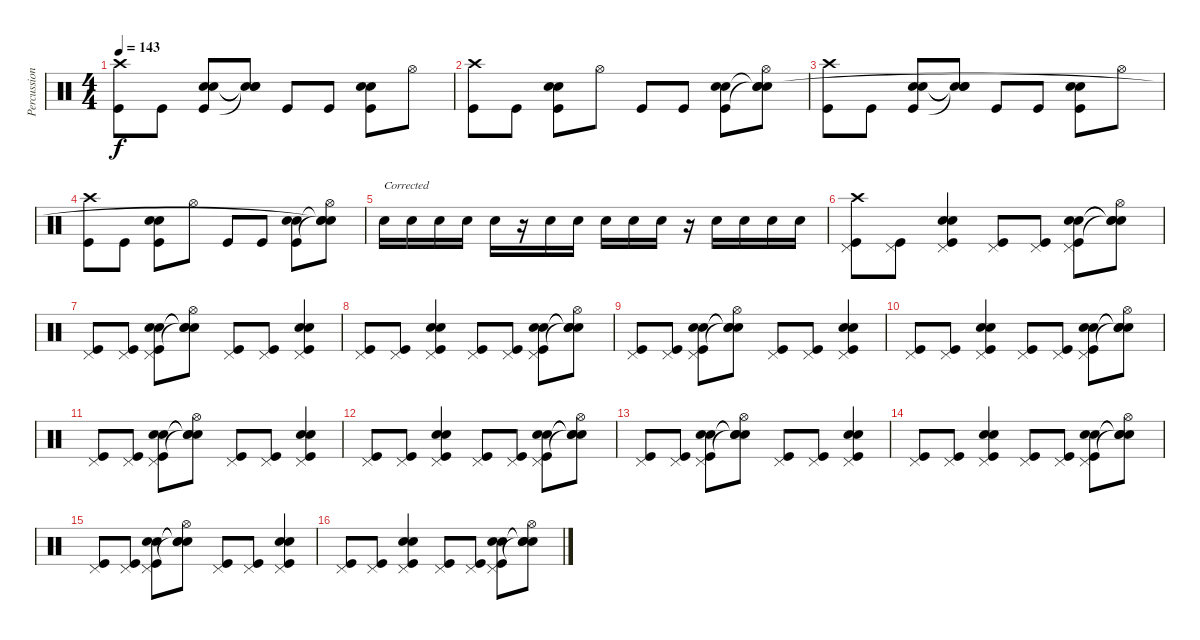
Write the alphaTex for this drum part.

\track ("Percussions" "Percussion") {instrument percussion}
\staff {score}
\articulation defaults
\ts (4 4)
\tempo 143
\clef neutral
\ks c
("Crash high (hit)" "Kick (hit)").8{dy f} "Kick (hit)".8 ("Snare (hit) 2" "Snare (hit) 2" "Kick (hit)").8 ("Snare (hit)"{t} "Snare (hit)"{t} "Snare (hit)"{t}).8 "Kick (hit)".8 "Kick (hit)".8 ("Snare (hit) 2" "Snare (hit) 2" "Kick (hit)").8 "Hi-Hat (open)".8 |
("Crash high (hit)" "Kick (hit)").8 "Kick (hit)".8 ("Snare (hit) 2" "Snare (hit) 2" "Kick (hit)").8 "Hi-Hat (open)".8 "Kick (hit)".8 "Kick (hit)".8 ("Snare (hit) 2" "Snare (hit) 2" "Kick (hit)").8 ("Hi-Hat (open)" "Snare (hit)"{t} "Snare (hit)"{t} "Snare (hit)").8 |
("Crash high (hit)" "Kick (hit)").8 "Kick (hit)".8 ("Snare (hit) 2" "Snare (hit) 2" "Kick (hit)").8 ("Snare (hit)"{t} "Snare (hit)"{t} "Snare (hit)"{t}).8 "Kick (hit)".8 "Kick (hit)".8 ("Snare (hit) 2" "Snare (hit) 2" "Kick (hit)").8 "Hi-Hat (open)".8 |
("Crash high (hit)" "Kick (hit)").8 "Kick (hit)".8 ("Snare (hit) 2" "Snare (hit) 2" "Kick (hit)").8 "Hi-Hat (open)".8 "Kick (hit)".8 "Kick (hit)".8 ("Snare (hit) 2" "Snare (hit) 2" "Kick (hit)").8 ("Hi-Hat (open)" "Snare (hit)"{t} "Snare (hit)"{t} "Snare (hit)"{t}).8 |
"Snare (hit) 2".16{txt "Corrected"} "Snare (hit) 2".16 "Snare (hit) 2".16 "Snare (hit) 2".16 "Snare (hit) 2".16 r.16 "Snare (hit) 2".16 "Snare (hit) 2".16 "Snare (hit) 2".16 "Snare (hit) 2".16 "Snare (hit) 2".16 r.16 "Snare (hit) 2".16 "Snare (hit) 2".16 "Snare (hit) 2".16 "Snare (hit) 2".16 |
("Pedal Hi-Hat (hit)" "Crash high (hit)" "Kick (hit)").8 ("Pedal Hi-Hat (hit)" "Kick (hit)").8 ("Pedal Hi-Hat (hit)" "Snare (hit) 2" "Snare (hit) 2" "Kick (hit)").4 ("Pedal Hi-Hat (hit)" "Kick (hit)").8 ("Pedal Hi-Hat (hit)" "Kick (hit)").8 ("Pedal Hi-Hat (hit)" "Snare (hit) 2" "Snare (hit) 2" "Kick (hit)").8 ("Hi-Hat (open)" "Snare (hit)"{t} "Snare (hit)"{t} "Snare (hit)"{t}).8 |
("Pedal Hi-Hat (hit)" "Kick (hit)").8 ("Pedal Hi-Hat (hit)" "Kick (hit)").8 ("Pedal Hi-Hat (hit)" "Snare (hit) 2" "Snare (hit) 2" "Kick (hit)").8 ("Hi-Hat (open)" "Snare (hit)"{t} "Snare (hit)"{t} "Snare (hit)"{t}).8 ("Pedal Hi-Hat (hit)" "Kick (hit)").8 ("Pedal Hi-Hat (hit)" "Kick (hit)").8 ("Pedal Hi-Hat (hit)" "Snare (hit) 2" "Snare (hit) 2" "Kick (hit)").4 |
("Pedal Hi-Hat (hit)" "Kick (hit)").8 ("Pedal Hi-Hat (hit)" "Kick (hit)").8 ("Pedal Hi-Hat (hit)" "Snare (hit) 2" "Snare (hit) 2" "Kick (hit)").4 ("Pedal Hi-Hat (hit)" "Kick (hit)").8 ("Pedal Hi-Hat (hit)" "Kick (hit)").8 ("Pedal Hi-Hat (hit)" "Snare (hit) 2" "Snare (hit) 2" "Kick (hit)").8 ("Hi-Hat (open)" "Snare (hit)"{t} "Snare (hit)"{t} "Snare (hit)"{t}).8 |
("Pedal Hi-Hat (hit)" "Kick (hit)").8 ("Pedal Hi-Hat (hit)" "Kick (hit)").8 ("Pedal Hi-Hat (hit)" "Snare (hit) 2" "Snare (hit) 2" "Kick (hit)").8 ("Hi-Hat (open)" "Snare (hit)"{t} "Snare (hit)"{t} "Snare (hit)"{t}).8 ("Pedal Hi-Hat (hit)" "Kick (hit)").8 ("Pedal Hi-Hat (hit)" "Kick (hit)").8 ("Pedal Hi-Hat (hit)" "Snare (hit) 2" "Snare (hit) 2" "Kick (hit)").4 |
("Pedal Hi-Hat (hit)" "Kick (hit)").8 ("Pedal Hi-Hat (hit)" "Kick (hit)").8 ("Pedal Hi-Hat (hit)" "Snare (hit) 2" "Snare (hit) 2" "Kick (hit)").4 ("Pedal Hi-Hat (hit)" "Kick (hit)").8 ("Pedal Hi-Hat (hit)" "Kick (hit)").8 ("Pedal Hi-Hat (hit)" "Snare (hit) 2" "Snare (hit) 2" "Kick (hit)").8 ("Hi-Hat (open)" "Snare (hit)"{t} "Snare (hit)"{t} "Snare (hit)"{t}).8 |
("Pedal Hi-Hat (hit)" "Kick (hit)").8 ("Pedal Hi-Hat (hit)" "Kick (hit)").8 ("Pedal Hi-Hat (hit)" "Snare (hit) 2" "Snare (hit) 2" "Kick (hit)").8 ("Hi-Hat (open)" "Snare (hit)"{t} "Snare (hit)"{t} "Snare (hit)"{t}).8 ("Pedal Hi-Hat (hit)" "Kick (hit)").8 ("Pedal Hi-Hat (hit)" "Kick (hit)").8 ("Pedal Hi-Hat (hit)" "Snare (hit) 2" "Snare (hit) 2" "Kick (hit)").4 |
("Pedal Hi-Hat (hit)" "Kick (hit)").8 ("Pedal Hi-Hat (hit)" "Kick (hit)").8 ("Pedal Hi-Hat (hit)" "Snare (hit) 2" "Snare (hit) 2" "Kick (hit)").4 ("Pedal Hi-Hat (hit)" "Kick (hit)").8 ("Pedal Hi-Hat (hit)" "Kick (hit)").8 ("Pedal Hi-Hat (hit)" "Snare (hit) 2" "Snare (hit) 2" "Kick (hit)").8 ("Hi-Hat (open)" "Snare (hit)"{t} "Snare (hit)"{t} "Snare (hit)"{t}).8 |
("Pedal Hi-Hat (hit)" "Kick (hit)").8 ("Pedal Hi-Hat (hit)" "Kick (hit)").8 ("Pedal Hi-Hat (hit)" "Snare (hit) 2" "Snare (hit) 2" "Kick (hit)").8 ("Hi-Hat (open)" "Snare (hit)"{t} "Snare (hit)"{t} "Snare (hit)"{t}).8 ("Pedal Hi-Hat (hit)" "Kick (hit)").8 ("Pedal Hi-Hat (hit)" "Kick (hit)").8 ("Pedal Hi-Hat (hit)" "Snare (hit) 2" "Snare (hit) 2" "Kick (hit)").4 |
("Pedal Hi-Hat (hit)" "Kick (hit)").8 ("Pedal Hi-Hat (hit)" "Kick (hit)").8 ("Pedal Hi-Hat (hit)" "Snare (hit) 2" "Snare (hit) 2" "Kick (hit)").4 ("Pedal Hi-Hat (hit)" "Kick (hit)").8 ("Pedal Hi-Hat (hit)" "Kick (hit)").8 ("Pedal Hi-Hat (hit)" "Snare (hit) 2" "Snare (hit) 2" "Kick (hit)").8 ("Hi-Hat (open)" "Snare (hit)"{t} "Snare (hit)"{t} "Snare (hit)"{t}).8 |
("Pedal Hi-Hat (hit)" "Kick (hit)").8 ("Pedal Hi-Hat (hit)" "Kick (hit)").8 ("Pedal Hi-Hat (hit)" "Snare (hit) 2" "Snare (hit) 2" "Kick (hit)").8 ("Hi-Hat (open)" "Snare (hit)"{t} "Snare (hit)"{t} "Snare (hit)"{t}).8 ("Pedal Hi-Hat (hit)" "Kick (hit)").8 ("Pedal Hi-Hat (hit)" "Kick (hit)").8 ("Pedal Hi-Hat (hit)" "Snare (hit) 2" "Snare (hit) 2" "Kick (hit)").4 |
("Pedal Hi-Hat (hit)" "Kick (hit)").8 ("Pedal Hi-Hat (hit)" "Kick (hit)").8 ("Pedal Hi-Hat (hit)" "Snare (hit) 2" "Snare (hit) 2" "Kick (hit)").4 ("Pedal Hi-Hat (hit)" "Kick (hit)").8 ("Pedal Hi-Hat (hit)" "Kick (hit)").8 ("Pedal Hi-Hat (hit)" "Snare (hit) 2" "Snare (hit) 2" "Kick (hit)").8 ("Hi-Hat (open)" "Snare (hit)"{t} "Snare (hit)"{t} "Snare (hit)"{t}).8
